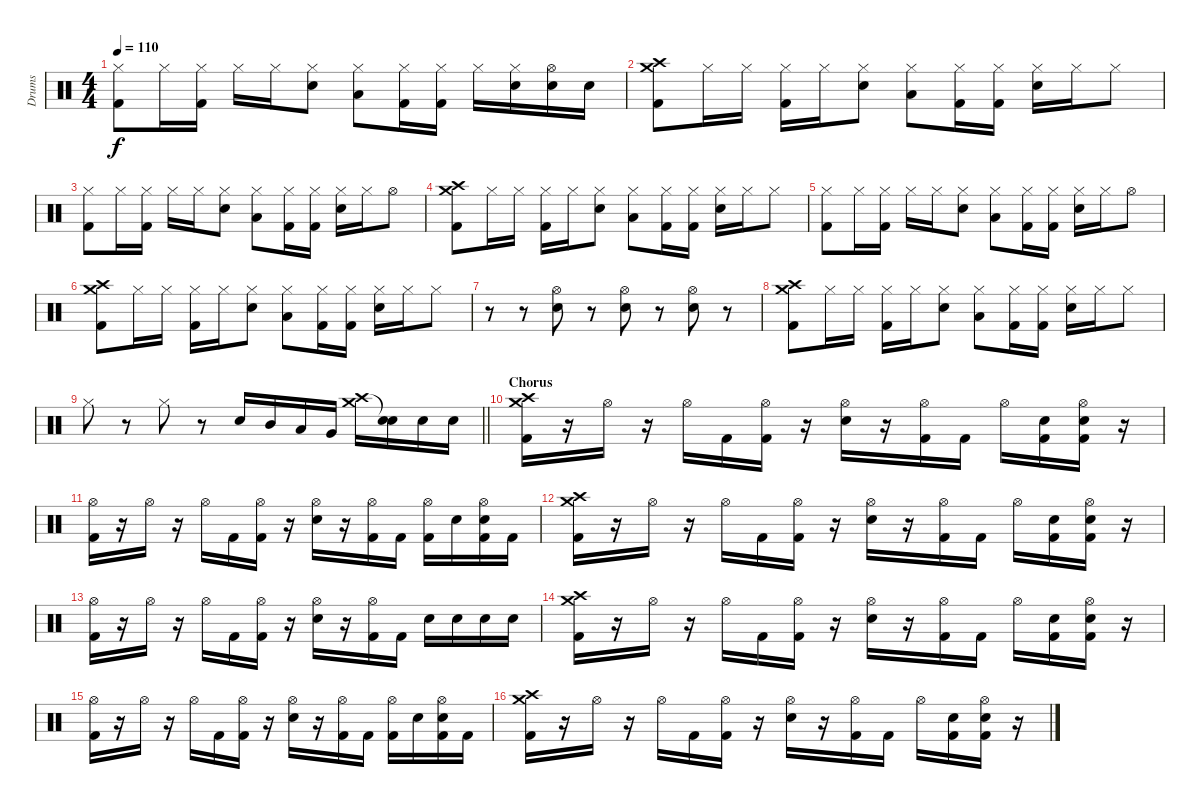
\track ("Drums" "Drums") {instrument percussion}
\staff {score}
\articulation defaults
\ts (4 4)
\tempo 110
\clef neutral
\ks c
("Hi-Hat (closed)" "Kick (hit) 2").8{dy f} "Hi-Hat (closed)".16 ("Hi-Hat (closed)" "Kick (hit) 2").16 "Hi-Hat (closed)".16 "Hi-Hat (closed)".16 ("Hi-Hat (closed)" "Snare (hit) 2").8 ("Hi-Hat (closed)" "Low Tom (hit)").8 ("Hi-Hat (closed)" "Kick (hit) 2").16 ("Hi-Hat (closed)" "Kick (hit) 2").16 "Hi-Hat (closed)".16 ("Hi-Hat (closed)" "Snare (hit) 2").16 ("Hi-Hat (open)" "Snare (hit) 2").16 "Snare (hit) 2".16 |
("Crash medium (hit)" "Crash high (hit)" "Kick (hit) 2").8 "Hi-Hat (closed)".16 "Hi-Hat (closed)".16 ("Hi-Hat (closed)" "Kick (hit) 2").16 "Hi-Hat (closed)".16 ("Hi-Hat (closed)" "Snare (hit) 2").8 ("Hi-Hat (closed)" "Low Tom (hit)").8 ("Hi-Hat (closed)" "Kick (hit) 2").16 ("Hi-Hat (closed)" "Kick (hit) 2").16 ("Hi-Hat (closed)" "Snare (hit) 2").16 "Hi-Hat (closed)".16 "Hi-Hat (closed)".8 |
("Hi-Hat (closed)" "Kick (hit) 2").8 "Hi-Hat (closed)".16 ("Hi-Hat (closed)" "Kick (hit) 2").16 "Hi-Hat (closed)".16 "Hi-Hat (closed)".16 ("Hi-Hat (closed)" "Snare (hit) 2").8 ("Hi-Hat (closed)" "Low Tom (hit)").8 ("Hi-Hat (closed)" "Kick (hit) 2").16 ("Hi-Hat (closed)" "Kick (hit) 2").16 ("Hi-Hat (closed)" "Snare (hit) 2").16 "Hi-Hat (closed)".16 "Hi-Hat (open)".8 |
("Crash medium (hit)" "Crash high (hit)" "Kick (hit) 2").8 "Hi-Hat (closed)".16 "Hi-Hat (closed)".16 ("Hi-Hat (closed)" "Kick (hit) 2").16 "Hi-Hat (closed)".16 ("Hi-Hat (closed)" "Snare (hit) 2").8 ("Hi-Hat (closed)" "Low Tom (hit)").8 ("Hi-Hat (closed)" "Kick (hit) 2").16 ("Hi-Hat (closed)" "Kick (hit) 2").16 ("Hi-Hat (closed)" "Snare (hit) 2").16 "Hi-Hat (closed)".16 "Hi-Hat (closed)".8 |
("Hi-Hat (closed)" "Kick (hit) 2").8 "Hi-Hat (closed)".16 ("Hi-Hat (closed)" "Kick (hit) 2").16 "Hi-Hat (closed)".16 "Hi-Hat (closed)".16 ("Hi-Hat (closed)" "Snare (hit) 2").8 ("Hi-Hat (closed)" "Low Tom (hit)").8 ("Hi-Hat (closed)" "Kick (hit) 2").16 ("Hi-Hat (closed)" "Kick (hit) 2").16 ("Hi-Hat (closed)" "Snare (hit) 2").16 "Hi-Hat (closed)".16 "Hi-Hat (open)".8 |
("Crash medium (hit)" "Crash high (hit)" "Kick (hit) 2").8 "Hi-Hat (closed)".16 "Hi-Hat (closed)".16 ("Hi-Hat (closed)" "Kick (hit) 2").16 "Hi-Hat (closed)".16 ("Hi-Hat (closed)" "Snare (hit) 2").8 ("Hi-Hat (closed)" "Low Tom (hit)").8 ("Hi-Hat (closed)" "Kick (hit) 2").16 ("Hi-Hat (closed)" "Kick (hit) 2").16 ("Hi-Hat (closed)" "Snare (hit) 2").16 "Hi-Hat (closed)".16 "Hi-Hat (closed)".8 |
r.8 r.8 ("Hi-Hat (open)" "Snare (hit) 2").8 r.8 ("Hi-Hat (open)" "Snare (hit) 2").8 r.8 ("Hi-Hat (open)" "Snare (hit) 2").8 r.8 |
("Crash medium (hit)" "Crash high (hit)" "Kick (hit) 2").8 "Hi-Hat (closed)".16 "Hi-Hat (closed)".16 ("Hi-Hat (closed)" "Kick (hit) 2").16 "Hi-Hat (closed)".16 ("Hi-Hat (closed)" "Snare (hit) 2").8 ("Hi-Hat (closed)" "Low Tom (hit)").8 ("Hi-Hat (closed)" "Kick (hit) 2").16 ("Hi-Hat (closed)" "Kick (hit) 2").16 ("Hi-Hat (closed)" "Snare (hit) 2").16 "Hi-Hat (closed)".16 "Hi-Hat (closed)".8 |
\barLineRight lightlight "Hi-Hat (closed)".8
r.8 "Hi-Hat (closed)".8 r.8 "Snare (hit) 2".16 "Mid Tom (hit)".16 "Low Tom (hit)".16 "Very Low Tom (hit)".16 ("Crash high (hit)" "Crash medium (hit)").16 ("Snare (hit)"{t} "Snare (hit) 2").16 "Snare (hit) 2".16 "Snare (hit) 2".16 |
\section ("" "Chorus")
("Crash medium (hit)" "Crash high (hit)" "Kick (hit) 2").16 r.16 "Hi-Hat (open)".16 r.16 "Hi-Hat (open)".16 "Kick (hit) 2".16 ("Hi-Hat (open)" "Kick (hit) 2").16 r.16 ("Hi-Hat (open)" "Snare (hit) 2").16 r.16 ("Hi-Hat (open)" "Kick (hit) 2").16 "Kick (hit) 2".16 "Hi-Hat (open)".16 ("Snare (hit) 2" "Kick (hit) 2").16 ("Hi-Hat (open)" "Snare (hit) 2" "Kick (hit) 2").16 r.16 |
("Hi-Hat (open)" "Kick (hit) 2").16 r.16 "Hi-Hat (open)".16 r.16 "Hi-Hat (open)".16 "Kick (hit) 2".16 ("Hi-Hat (open)" "Kick (hit) 2").16 r.16 ("Hi-Hat (open)" "Snare (hit) 2").16 r.16 ("Hi-Hat (open)" "Kick (hit) 2").16 "Kick (hit) 2".16 ("Hi-Hat (open)" "Kick (hit) 2").16 "Snare (hit) 2".16 ("Hi-Hat (open)" "Snare (hit) 2" "Kick (hit) 2").16 "Kick (hit) 2".16 |
("Crash medium (hit)" "Crash high (hit)" "Kick (hit) 2").16 r.16 "Hi-Hat (open)".16 r.16 "Hi-Hat (open)".16 "Kick (hit) 2".16 ("Hi-Hat (open)" "Kick (hit) 2").16 r.16 ("Hi-Hat (open)" "Snare (hit) 2").16 r.16 ("Hi-Hat (open)" "Kick (hit) 2").16 "Kick (hit) 2".16 "Hi-Hat (open)".16 ("Snare (hit) 2" "Kick (hit) 2").16 ("Hi-Hat (open)" "Snare (hit) 2" "Kick (hit) 2").16 r.16 |
("Hi-Hat (open)" "Kick (hit) 2").16 r.16 "Hi-Hat (open)".16 r.16 "Hi-Hat (open)".16 "Kick (hit) 2".16 ("Hi-Hat (open)" "Kick (hit) 2").16 r.16 ("Hi-Hat (open)" "Snare (hit) 2").16 r.16 ("Hi-Hat (open)" "Kick (hit) 2").16 "Kick (hit) 2".16 "Snare (hit) 2".16 "Snare (hit) 2".16 "Snare (hit) 2".16 "Snare (hit) 2".16 |
("Crash medium (hit)" "Crash high (hit)" "Kick (hit) 2").16 r.16 "Hi-Hat (open)".16 r.16 "Hi-Hat (open)".16 "Kick (hit) 2".16 ("Hi-Hat (open)" "Kick (hit) 2").16 r.16 ("Hi-Hat (open)" "Snare (hit) 2").16 r.16 ("Hi-Hat (open)" "Kick (hit) 2").16 "Kick (hit) 2".16 "Hi-Hat (open)".16 ("Snare (hit) 2" "Kick (hit) 2").16 ("Hi-Hat (open)" "Snare (hit) 2" "Kick (hit) 2").16 r.16 |
("Hi-Hat (open)" "Kick (hit) 2").16 r.16 "Hi-Hat (open)".16 r.16 "Hi-Hat (open)".16 "Kick (hit) 2".16 ("Hi-Hat (open)" "Kick (hit) 2").16 r.16 ("Hi-Hat (open)" "Snare (hit) 2").16 r.16 ("Hi-Hat (open)" "Kick (hit) 2").16 "Kick (hit) 2".16 ("Hi-Hat (open)" "Kick (hit) 2").16 "Snare (hit) 2".16 ("Hi-Hat (open)" "Snare (hit) 2" "Kick (hit) 2").16 "Kick (hit) 2".16 |
("Crash medium (hit)" "Crash high (hit)" "Kick (hit) 2").16 r.16 "Hi-Hat (open)".16 r.16 "Hi-Hat (open)".16 "Kick (hit) 2".16 ("Hi-Hat (open)" "Kick (hit) 2").16 r.16 ("Hi-Hat (open)" "Snare (hit) 2").16 r.16 ("Hi-Hat (open)" "Kick (hit) 2").16 "Kick (hit) 2".16 "Hi-Hat (open)".16 ("Snare (hit) 2" "Kick (hit) 2").16 ("Hi-Hat (open)" "Snare (hit) 2" "Kick (hit) 2").16 r.16
